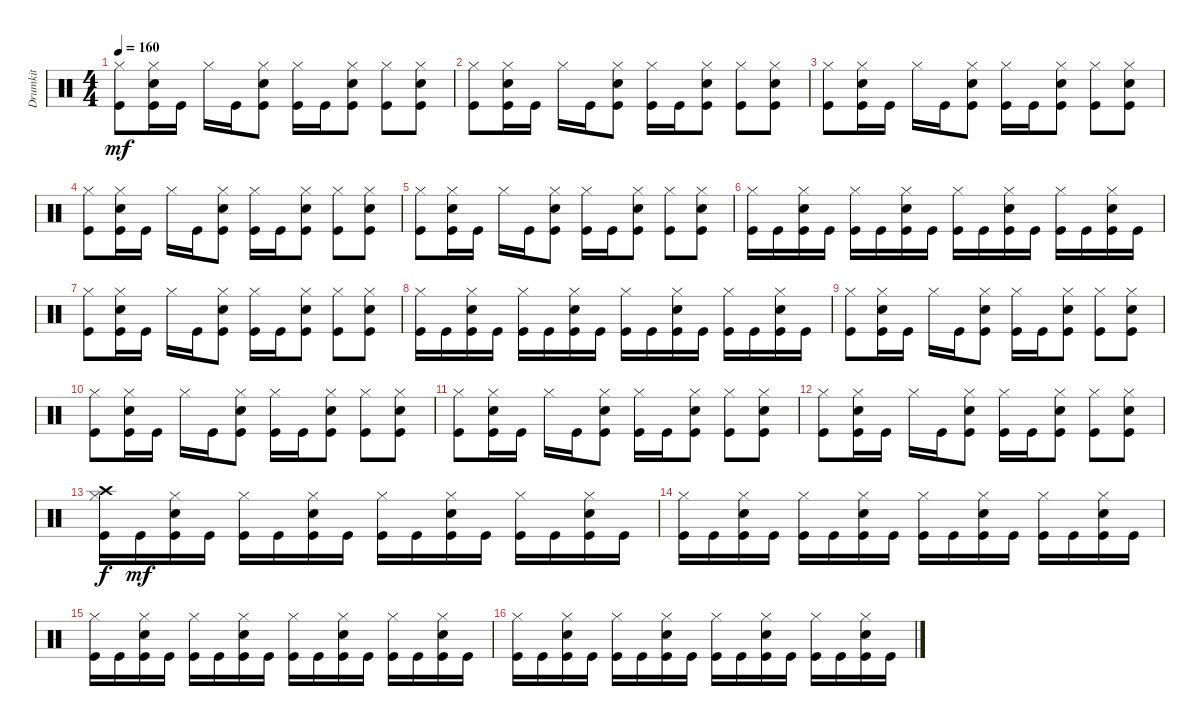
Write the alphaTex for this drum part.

\track ("Drumkit" "Drumkit") {instrument percussion}
\staff {score}
\articulation defaults
\ts (4 4)
\tempo 160
\clef neutral
\ks c
("Kick (hit)" "Hi-Hat (closed)").8{dy mf} ("Kick (hit)" "Snare (hit) 2" "Hi-Hat (closed)").16 "Kick (hit)".16 "Hi-Hat (closed)".16 "Kick (hit)".16 ("Kick (hit)" "Snare (hit) 2" "Hi-Hat (closed)").8 ("Kick (hit)" "Hi-Hat (closed)").16 "Kick (hit)".16 ("Kick (hit)" "Snare (hit) 2" "Hi-Hat (closed)").8 ("Kick (hit)" "Hi-Hat (closed)").8 ("Kick (hit)" "Snare (hit) 2" "Hi-Hat (closed)").8 |
("Kick (hit)" "Hi-Hat (closed)").8 ("Kick (hit)" "Snare (hit) 2" "Hi-Hat (closed)").16 "Kick (hit)".16 "Hi-Hat (closed)".16 "Kick (hit)".16 ("Kick (hit)" "Snare (hit) 2" "Hi-Hat (closed)").8 ("Kick (hit)" "Hi-Hat (closed)").16 "Kick (hit)".16 ("Kick (hit)" "Snare (hit) 2" "Hi-Hat (closed)").8 ("Kick (hit)" "Hi-Hat (closed)").8 ("Kick (hit)" "Snare (hit) 2" "Hi-Hat (closed)").8 |
("Kick (hit)" "Hi-Hat (closed)").8 ("Kick (hit)" "Snare (hit) 2" "Hi-Hat (closed)").16 "Kick (hit)".16 "Hi-Hat (closed)".16 "Kick (hit)".16 ("Kick (hit)" "Snare (hit) 2" "Hi-Hat (closed)").8 ("Kick (hit)" "Hi-Hat (closed)").16 "Kick (hit)".16 ("Kick (hit)" "Snare (hit) 2" "Hi-Hat (closed)").8 ("Kick (hit)" "Hi-Hat (closed)").8 ("Kick (hit)" "Snare (hit) 2" "Hi-Hat (closed)").8 |
("Kick (hit)" "Hi-Hat (closed)").8 ("Kick (hit)" "Snare (hit) 2" "Hi-Hat (closed)").16 "Kick (hit)".16 "Hi-Hat (closed)".16 "Kick (hit)".16 ("Kick (hit)" "Snare (hit) 2" "Hi-Hat (closed)").8 ("Kick (hit)" "Hi-Hat (closed)").16 "Kick (hit)".16 ("Kick (hit)" "Snare (hit) 2" "Hi-Hat (closed)").8 ("Kick (hit)" "Hi-Hat (closed)").8 ("Kick (hit)" "Snare (hit) 2" "Hi-Hat (closed)").8 |
("Kick (hit)" "Hi-Hat (closed)").8 ("Kick (hit)" "Snare (hit) 2" "Hi-Hat (closed)").16 "Kick (hit)".16 "Hi-Hat (closed)".16 "Kick (hit)".16 ("Kick (hit)" "Snare (hit) 2" "Hi-Hat (closed)").8 ("Kick (hit)" "Hi-Hat (closed)").16 "Kick (hit)".16 ("Kick (hit)" "Snare (hit) 2" "Hi-Hat (closed)").8 ("Kick (hit)" "Hi-Hat (closed)").8 ("Kick (hit)" "Snare (hit) 2" "Hi-Hat (closed)").8 |
("Kick (hit)" "Hi-Hat (closed)").16 "Kick (hit)".16 ("Kick (hit)" "Snare (hit) 2" "Hi-Hat (closed)").16 "Kick (hit)".16 ("Kick (hit)" "Hi-Hat (closed)").16 "Kick (hit)".16 ("Kick (hit)" "Snare (hit) 2" "Hi-Hat (closed)").16 "Kick (hit)".16 ("Kick (hit)" "Hi-Hat (closed)").16 "Kick (hit)".16 ("Kick (hit)" "Snare (hit) 2" "Hi-Hat (closed)").16 "Kick (hit)".16 ("Kick (hit)" "Hi-Hat (closed)").16 "Kick (hit)".16 ("Kick (hit)" "Snare (hit) 2" "Hi-Hat (closed)").16 "Kick (hit)".16 |
("Kick (hit)" "Hi-Hat (closed)").8 ("Kick (hit)" "Snare (hit) 2" "Hi-Hat (closed)").16 "Kick (hit)".16 "Hi-Hat (closed)".16 "Kick (hit)".16 ("Kick (hit)" "Snare (hit) 2" "Hi-Hat (closed)").8 ("Kick (hit)" "Hi-Hat (closed)").16 "Kick (hit)".16 ("Kick (hit)" "Snare (hit) 2" "Hi-Hat (closed)").8 ("Kick (hit)" "Hi-Hat (closed)").8 ("Kick (hit)" "Snare (hit) 2" "Hi-Hat (closed)").8 |
("Kick (hit)" "Hi-Hat (closed)").16 "Kick (hit)".16 ("Kick (hit)" "Snare (hit) 2" "Hi-Hat (closed)").16 "Kick (hit)".16 ("Kick (hit)" "Hi-Hat (closed)").16 "Kick (hit)".16 ("Kick (hit)" "Snare (hit) 2" "Hi-Hat (closed)").16 "Kick (hit)".16 ("Kick (hit)" "Hi-Hat (closed)").16 "Kick (hit)".16 ("Kick (hit)" "Snare (hit) 2" "Hi-Hat (closed)").16 "Kick (hit)".16 ("Kick (hit)" "Hi-Hat (closed)").16 "Kick (hit)".16 ("Kick (hit)" "Snare (hit) 2" "Hi-Hat (closed)").16 "Kick (hit)".16 |
("Kick (hit)" "Hi-Hat (closed)").8 ("Kick (hit)" "Snare (hit) 2" "Hi-Hat (closed)").16 "Kick (hit)".16 "Hi-Hat (closed)".16 "Kick (hit)".16 ("Kick (hit)" "Snare (hit) 2" "Hi-Hat (closed)").8 ("Kick (hit)" "Hi-Hat (closed)").16 "Kick (hit)".16 ("Kick (hit)" "Snare (hit) 2" "Hi-Hat (closed)").8 ("Kick (hit)" "Hi-Hat (closed)").8 ("Kick (hit)" "Snare (hit) 2" "Hi-Hat (closed)").8 |
("Kick (hit)" "Hi-Hat (closed)").8 ("Kick (hit)" "Snare (hit) 2" "Hi-Hat (closed)").16 "Kick (hit)".16 "Hi-Hat (closed)".16 "Kick (hit)".16 ("Kick (hit)" "Snare (hit) 2" "Hi-Hat (closed)").8 ("Kick (hit)" "Hi-Hat (closed)").16 "Kick (hit)".16 ("Kick (hit)" "Snare (hit) 2" "Hi-Hat (closed)").8 ("Kick (hit)" "Hi-Hat (closed)").8 ("Kick (hit)" "Snare (hit) 2" "Hi-Hat (closed)").8 |
("Kick (hit)" "Hi-Hat (closed)").8 ("Kick (hit)" "Snare (hit) 2" "Hi-Hat (closed)").16 "Kick (hit)".16 "Hi-Hat (closed)".16 "Kick (hit)".16 ("Kick (hit)" "Snare (hit) 2" "Hi-Hat (closed)").8 ("Kick (hit)" "Hi-Hat (closed)").16 "Kick (hit)".16 ("Kick (hit)" "Snare (hit) 2" "Hi-Hat (closed)").8 ("Kick (hit)" "Hi-Hat (closed)").8 ("Kick (hit)" "Snare (hit) 2" "Hi-Hat (closed)").8 |
("Kick (hit)" "Hi-Hat (closed)").8 ("Kick (hit)" "Snare (hit) 2" "Hi-Hat (closed)").16 "Kick (hit)".16 "Hi-Hat (closed)".16 "Kick (hit)".16 ("Kick (hit)" "Snare (hit) 2" "Hi-Hat (closed)").8 ("Kick (hit)" "Hi-Hat (closed)").16 "Kick (hit)".16 ("Kick (hit)" "Snare (hit) 2" "Hi-Hat (closed)").8 ("Kick (hit)" "Hi-Hat (closed)").8 ("Kick (hit)" "Snare (hit) 2" "Hi-Hat (closed)").8 |
("Crash high (hit)" "Kick (hit)" "Hi-Hat (closed)").16{dy f} "Kick (hit)".16{dy mf} ("Kick (hit)" "Snare (hit) 2" "Hi-Hat (closed)").16 "Kick (hit)".16 ("Kick (hit)" "Hi-Hat (closed)").16 "Kick (hit)".16 ("Kick (hit)" "Snare (hit) 2" "Hi-Hat (closed)").16 "Kick (hit)".16 ("Kick (hit)" "Hi-Hat (closed)").16 "Kick (hit)".16 ("Kick (hit)" "Snare (hit) 2" "Hi-Hat (closed)").16 "Kick (hit)".16 ("Kick (hit)" "Hi-Hat (closed)").16 "Kick (hit)".16 ("Kick (hit)" "Snare (hit) 2" "Hi-Hat (closed)").16 "Kick (hit)".16 |
("Kick (hit)" "Hi-Hat (closed)").16 "Kick (hit)".16 ("Kick (hit)" "Snare (hit) 2" "Hi-Hat (closed)").16 "Kick (hit)".16 ("Kick (hit)" "Hi-Hat (closed)").16 "Kick (hit)".16 ("Kick (hit)" "Snare (hit) 2" "Hi-Hat (closed)").16 "Kick (hit)".16 ("Kick (hit)" "Hi-Hat (closed)").16 "Kick (hit)".16 ("Kick (hit)" "Snare (hit) 2" "Hi-Hat (closed)").16 "Kick (hit)".16 ("Kick (hit)" "Hi-Hat (closed)").16 "Kick (hit)".16 ("Kick (hit)" "Snare (hit) 2" "Hi-Hat (closed)").16 "Kick (hit)".16 |
("Kick (hit)" "Hi-Hat (closed)").16 "Kick (hit)".16 ("Kick (hit)" "Snare (hit) 2" "Hi-Hat (closed)").16 "Kick (hit)".16 ("Kick (hit)" "Hi-Hat (closed)").16 "Kick (hit)".16 ("Kick (hit)" "Snare (hit) 2" "Hi-Hat (closed)").16 "Kick (hit)".16 ("Kick (hit)" "Hi-Hat (closed)").16 "Kick (hit)".16 ("Kick (hit)" "Snare (hit) 2" "Hi-Hat (closed)").16 "Kick (hit)".16 ("Kick (hit)" "Hi-Hat (closed)").16 "Kick (hit)".16 ("Kick (hit)" "Snare (hit) 2" "Hi-Hat (closed)").16 "Kick (hit)".16 |
("Kick (hit)" "Hi-Hat (closed)").16 "Kick (hit)".16 ("Kick (hit)" "Snare (hit) 2" "Hi-Hat (closed)").16 "Kick (hit)".16 ("Kick (hit)" "Hi-Hat (closed)").16 "Kick (hit)".16 ("Kick (hit)" "Snare (hit) 2" "Hi-Hat (closed)").16 "Kick (hit)".16 ("Kick (hit)" "Hi-Hat (closed)").16 "Kick (hit)".16 ("Kick (hit)" "Snare (hit) 2" "Hi-Hat (closed)").16 "Kick (hit)".16 ("Kick (hit)" "Hi-Hat (closed)").16 "Kick (hit)".16 ("Kick (hit)" "Snare (hit) 2" "Hi-Hat (closed)").16 "Kick (hit)".16
